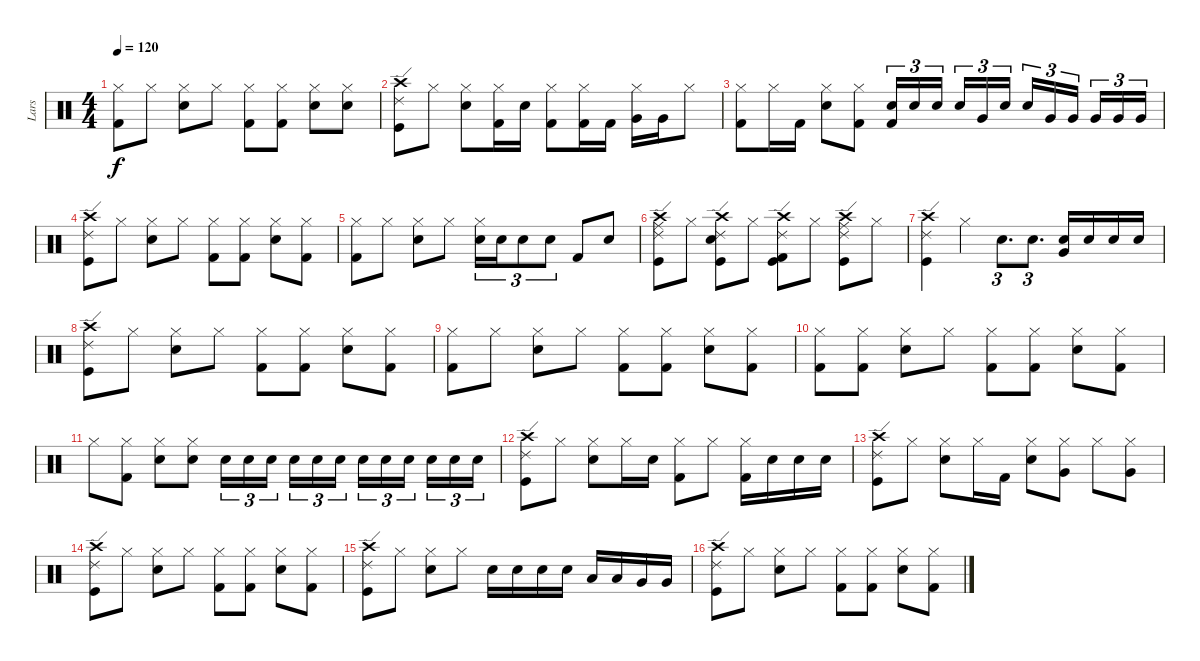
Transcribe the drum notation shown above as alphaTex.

\track ("Lars" "Lars") {instrument percussion}
\staff
\articulation defaults
\ts (4 4)
\tempo 120
\clef neutral
\ks c
("Kick (hit) 2" "Hi-Hat (closed)").8{dy f} "Hi-Hat (closed)".8 ("Snare (hit) 2" "Hi-Hat (closed)").8 "Hi-Hat (closed)".8 ("Kick (hit) 2" "Hi-Hat (closed)").8 ("Kick (hit) 2" "Hi-Hat (closed)").8 ("Snare (hit) 2" "Hi-Hat (closed)").8 ("Snare (hit) 2" "Hi-Hat (closed)").8 |
("Crash high (hit)" "Ride (edge) 2" "Kick (hit)").8 "Hi-Hat (closed)".8 ("Snare (hit) 2" "Hi-Hat (closed)").8 ("Kick (hit) 2" "Hi-Hat (closed)").16 "Snare (hit) 2".16 ("Kick (hit) 2" "Hi-Hat (closed)").8 ("Kick (hit) 2" "Hi-Hat (closed)").16 "Kick (hit) 2".16 ("Very Low Tom (hit)" "Hi-Hat (closed)").16 "Very Low Tom (hit)".16 "Hi-Hat (closed)".8 |
("Kick (hit) 2" "Hi-Hat (closed)").8 "Hi-Hat (closed)".16 "Kick (hit) 2".16 ("Snare (hit) 2" "Hi-Hat (closed)").8 ("Kick (hit) 2" "Hi-Hat (closed)").8 ("Kick (hit) 2" "Snare (hit) 2").16{tu (3 2)} "Snare (hit) 2".16{tu (3 2)} "Snare (hit) 2".16{tu (3 2) beam splitsecondary} "Snare (hit) 2".16{tu (3 2)} "Very Low Tom (hit)".16{tu (3 2)} "Snare (hit) 2".16{tu (3 2)} "Snare (hit) 2".16{tu (3 2)} "Very Low Tom (hit)".16{tu (3 2)} "Very Low Tom (hit)".16{tu (3 2) beam splitsecondary} "Very Low Tom (hit)".16{tu (3 2)} "Very Low Tom (hit)".16{tu (3 2)} "Very Low Tom (hit)".16{tu (3 2)} |
("Crash high (hit)" "Ride (edge) 2" "Kick (hit)").8 "Hi-Hat (closed)".8 ("Snare (hit) 2" "Hi-Hat (closed)").8 "Hi-Hat (closed)".8 ("Kick (hit) 2" "Hi-Hat (closed)").8 ("Kick (hit) 2" "Hi-Hat (closed)").8 ("Snare (hit) 2" "Hi-Hat (closed)").8 ("Kick (hit) 2" "Hi-Hat (closed)").8 |
("Kick (hit) 2" "Hi-Hat (closed)").8 "Hi-Hat (closed)".8 ("Snare (hit) 2" "Hi-Hat (closed)").8 "Hi-Hat (closed)".8 ("Snare (hit) 2" "Hi-Hat (closed)").16{tu (3 2)} "Snare (hit) 2".16{tu (3 2)} "Snare (hit) 2".8{tu (3 2)} "Snare (hit) 2".8{tu (3 2)} "Kick (hit) 2".8 "Snare (hit) 2".8 |
("Ride (middle)" "Crash high (hit)" "Ride (edge) 2" "Kick (hit)").8 "Hi-Hat (closed)".8 ("Snare (hit) 2" "Crash high (hit)" "Ride (edge) 2" "Kick (hit)").8 "Hi-Hat (closed)".8 ("Kick (hit) 2" "Crash high (hit)" "Ride (edge) 2" "Kick (hit)").8 "Hi-Hat (closed)".8 ("Ride (middle)" "Crash high (hit)" "Ride (edge) 2" "Kick (hit)").8 "Hi-Hat (closed)".8 |
("Crash high (hit)" "Ride (edge) 2" "Kick (hit)").4 "Hi-Hat (closed)".4 "Snare (hit) 2".8{d tu (3 2)} "Snare (hit) 2".8{d tu (3 2)} ("Very Low Tom (hit)" "Snare (hit) 2").16 "Snare (hit) 2".16 "Snare (hit) 2".16 "Snare (hit) 2".16 |
("Crash high (hit)" "Ride (edge) 2" "Kick (hit)").8 "Hi-Hat (closed)".8 ("Snare (hit) 2" "Hi-Hat (closed)").8 "Hi-Hat (closed)".8 ("Kick (hit) 2" "Hi-Hat (closed)").8 ("Kick (hit) 2" "Hi-Hat (closed)").8 ("Snare (hit) 2" "Hi-Hat (closed)").8 ("Kick (hit) 2" "Hi-Hat (closed)").8 |
("Kick (hit) 2" "Hi-Hat (closed)").8 "Hi-Hat (closed)".8 ("Snare (hit) 2" "Hi-Hat (closed)").8 "Hi-Hat (closed)".8 ("Kick (hit) 2" "Hi-Hat (closed)").8 ("Kick (hit) 2" "Hi-Hat (closed)").8 ("Snare (hit) 2" "Hi-Hat (closed)").8 ("Kick (hit) 2" "Hi-Hat (closed)").8 |
("Kick (hit) 2" "Hi-Hat (closed)").8 ("Kick (hit) 2" "Hi-Hat (closed)").8 ("Snare (hit) 2" "Hi-Hat (closed)").8 "Hi-Hat (closed)".8 ("Kick (hit) 2" "Hi-Hat (closed)").8 ("Kick (hit) 2" "Hi-Hat (closed)").8 ("Snare (hit) 2" "Hi-Hat (closed)").8 ("Kick (hit) 2" "Hi-Hat (closed)").8 |
"Hi-Hat (closed)".8 ("Kick (hit) 2" "Hi-Hat (closed)").8 ("Snare (hit) 2" "Hi-Hat (closed)").8 ("Snare (hit) 2" "Hi-Hat (closed)").8 "Snare (hit) 2".16{tu (3 2)} "Snare (hit) 2".16{tu (3 2)} "Snare (hit) 2".16{tu (3 2) beam splitsecondary} "Snare (hit) 2".16{tu (3 2)} "Snare (hit) 2".16{tu (3 2)} "Snare (hit) 2".16{tu (3 2)} "Snare (hit) 2".16{tu (3 2)} "Snare (hit) 2".16{tu (3 2)} "Snare (hit) 2".16{tu (3 2) beam splitsecondary} "Snare (hit) 2".16{tu (3 2)} "Snare (hit) 2".16{tu (3 2)} "Snare (hit) 2".16{tu (3 2)} |
("Crash high (hit)" "Ride (edge) 2" "Kick (hit)").8 "Hi-Hat (closed)".8 ("Snare (hit) 2" "Hi-Hat (closed)").8 "Hi-Hat (closed)".16 "Snare (hit) 2".16 ("Kick (hit) 2" "Hi-Hat (closed)").8 "Hi-Hat (closed)".8 ("Kick (hit) 2" "Hi-Hat (closed)").16 "Snare (hit) 2".16 "Snare (hit) 2".16 "Snare (hit) 2".16 |
("Crash high (hit)" "Ride (edge) 2" "Kick (hit)").8 "Hi-Hat (closed)".8 ("Snare (hit) 2" "Hi-Hat (closed)").8 "Hi-Hat (closed)".16 "Kick (hit) 2".16 ("Snare (hit) 2" "Hi-Hat (closed)").8 ("Very Low Tom (hit)" "Hi-Hat (closed)").8 "Hi-Hat (closed)".8 ("Very Low Tom (hit)" "Hi-Hat (closed)").8 |
("Crash high (hit)" "Ride (edge) 2" "Kick (hit)").8 "Hi-Hat (closed)".8 ("Snare (hit) 2" "Hi-Hat (closed)").8 "Hi-Hat (closed)".8 ("Kick (hit) 2" "Hi-Hat (closed)").8 ("Kick (hit) 2" "Hi-Hat (closed)").8 ("Snare (hit) 2" "Hi-Hat (closed)").8 ("Kick (hit) 2" "Hi-Hat (closed)").8 |
("Crash high (hit)" "Ride (edge) 2" "Kick (hit)").8 "Hi-Hat (closed)".8 ("Snare (hit) 2" "Hi-Hat (closed)").8 "Hi-Hat (closed)".8 "Snare (hit) 2".16 "Snare (hit) 2".16 "Snare (hit) 2".16 "Snare (hit) 2".16 "Low Tom (hit)".16 "Low Tom (hit)".16 "Very Low Tom (hit)".16 "Very Low Tom (hit)".16 |
("Crash high (hit)" "Ride (edge) 2" "Kick (hit)").8 "Hi-Hat (closed)".8 ("Snare (hit) 2" "Hi-Hat (closed)").8 "Hi-Hat (closed)".8 ("Kick (hit) 2" "Hi-Hat (closed)").8 ("Kick (hit) 2" "Hi-Hat (closed)").8 ("Snare (hit) 2" "Hi-Hat (closed)").8 ("Kick (hit) 2" "Hi-Hat (closed)").8
